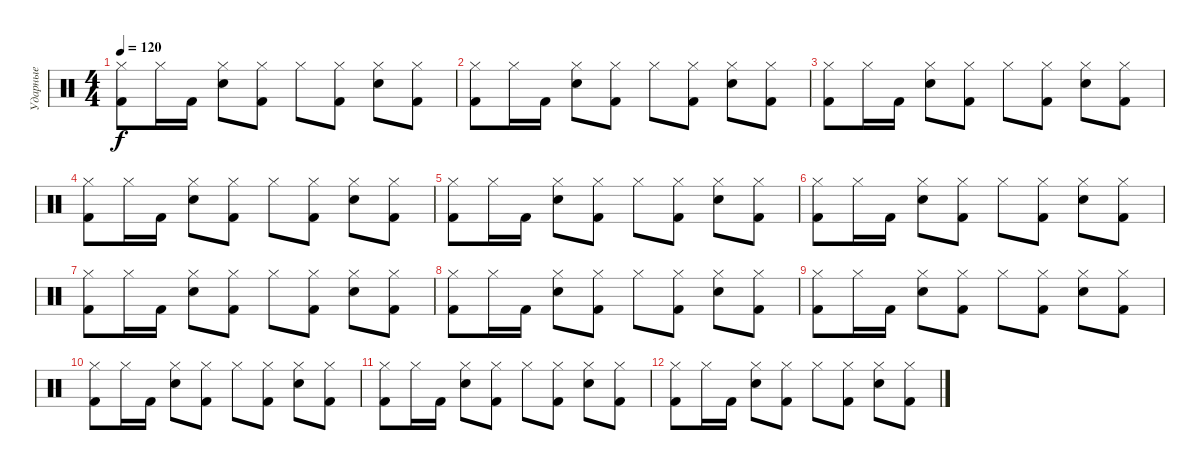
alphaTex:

\track ("Ударные" "Ударные") {instrument percussion}
\staff {score}
\articulation defaults
\ts (4 4)
\tempo 120
\clef neutral
\ks c
("Hi-Hat (closed)" "Kick (hit) 2").8{dy f} "Hi-Hat (closed)".16 "Kick (hit) 2".16 ("Hi-Hat (closed)" "Electric Snare (hit)").8 ("Hi-Hat (closed)" "Kick (hit) 2").8 "Hi-Hat (closed)".8 ("Hi-Hat (closed)" "Kick (hit) 2").8 ("Hi-Hat (closed)" "Electric Snare (hit)").8 ("Hi-Hat (closed)" "Kick (hit) 2").8 |
("Hi-Hat (closed)" "Kick (hit) 2").8 "Hi-Hat (closed)".16 "Kick (hit) 2".16 ("Hi-Hat (closed)" "Electric Snare (hit)").8 ("Hi-Hat (closed)" "Kick (hit) 2").8 "Hi-Hat (closed)".8 ("Hi-Hat (closed)" "Kick (hit) 2").8 ("Hi-Hat (closed)" "Electric Snare (hit)").8 ("Hi-Hat (closed)" "Kick (hit) 2").8 |
("Hi-Hat (closed)" "Kick (hit) 2").8 "Hi-Hat (closed)".16 "Kick (hit) 2".16 ("Hi-Hat (closed)" "Electric Snare (hit)").8 ("Hi-Hat (closed)" "Kick (hit) 2").8 "Hi-Hat (closed)".8 ("Hi-Hat (closed)" "Kick (hit) 2").8 ("Hi-Hat (closed)" "Electric Snare (hit)").8 ("Hi-Hat (closed)" "Kick (hit) 2").8 |
("Hi-Hat (closed)" "Kick (hit) 2").8 "Hi-Hat (closed)".16 "Kick (hit) 2".16 ("Hi-Hat (closed)" "Electric Snare (hit)").8 ("Hi-Hat (closed)" "Kick (hit) 2").8 "Hi-Hat (closed)".8 ("Hi-Hat (closed)" "Kick (hit) 2").8 ("Hi-Hat (closed)" "Electric Snare (hit)").8 ("Hi-Hat (closed)" "Kick (hit) 2").8 |
("Hi-Hat (closed)" "Kick (hit) 2").8 "Hi-Hat (closed)".16 "Kick (hit) 2".16 ("Hi-Hat (closed)" "Electric Snare (hit)").8 ("Hi-Hat (closed)" "Kick (hit) 2").8 "Hi-Hat (closed)".8 ("Hi-Hat (closed)" "Kick (hit) 2").8 ("Hi-Hat (closed)" "Electric Snare (hit)").8 ("Hi-Hat (closed)" "Kick (hit) 2").8 |
("Hi-Hat (closed)" "Kick (hit) 2").8 "Hi-Hat (closed)".16 "Kick (hit) 2".16 ("Hi-Hat (closed)" "Electric Snare (hit)").8 ("Hi-Hat (closed)" "Kick (hit) 2").8 "Hi-Hat (closed)".8 ("Hi-Hat (closed)" "Kick (hit) 2").8 ("Hi-Hat (closed)" "Electric Snare (hit)").8 ("Hi-Hat (closed)" "Kick (hit) 2").8 |
("Hi-Hat (closed)" "Kick (hit) 2").8 "Hi-Hat (closed)".16 "Kick (hit) 2".16 ("Hi-Hat (closed)" "Electric Snare (hit)").8 ("Hi-Hat (closed)" "Kick (hit) 2").8 "Hi-Hat (closed)".8 ("Hi-Hat (closed)" "Kick (hit) 2").8 ("Hi-Hat (closed)" "Electric Snare (hit)").8 ("Hi-Hat (closed)" "Kick (hit) 2").8 |
("Hi-Hat (closed)" "Kick (hit) 2").8 "Hi-Hat (closed)".16 "Kick (hit) 2".16 ("Hi-Hat (closed)" "Electric Snare (hit)").8 ("Hi-Hat (closed)" "Kick (hit) 2").8 "Hi-Hat (closed)".8 ("Hi-Hat (closed)" "Kick (hit) 2").8 ("Hi-Hat (closed)" "Electric Snare (hit)").8 ("Hi-Hat (closed)" "Kick (hit) 2").8 |
("Hi-Hat (closed)" "Kick (hit) 2").8 "Hi-Hat (closed)".16 "Kick (hit) 2".16 ("Hi-Hat (closed)" "Electric Snare (hit)").8 ("Hi-Hat (closed)" "Kick (hit) 2").8 "Hi-Hat (closed)".8 ("Hi-Hat (closed)" "Kick (hit) 2").8 ("Hi-Hat (closed)" "Electric Snare (hit)").8 ("Hi-Hat (closed)" "Kick (hit) 2").8 |
("Hi-Hat (closed)" "Kick (hit) 2").8 "Hi-Hat (closed)".16 "Kick (hit) 2".16 ("Hi-Hat (closed)" "Electric Snare (hit)").8 ("Hi-Hat (closed)" "Kick (hit) 2").8 "Hi-Hat (closed)".8 ("Hi-Hat (closed)" "Kick (hit) 2").8 ("Hi-Hat (closed)" "Electric Snare (hit)").8 ("Hi-Hat (closed)" "Kick (hit) 2").8 |
("Hi-Hat (closed)" "Kick (hit) 2").8 "Hi-Hat (closed)".16 "Kick (hit) 2".16 ("Hi-Hat (closed)" "Electric Snare (hit)").8 ("Hi-Hat (closed)" "Kick (hit) 2").8 "Hi-Hat (closed)".8 ("Hi-Hat (closed)" "Kick (hit) 2").8 ("Hi-Hat (closed)" "Electric Snare (hit)").8 ("Hi-Hat (closed)" "Kick (hit) 2").8 |
("Hi-Hat (closed)" "Kick (hit) 2").8 "Hi-Hat (closed)".16 "Kick (hit) 2".16 ("Hi-Hat (closed)" "Electric Snare (hit)").8 ("Hi-Hat (closed)" "Kick (hit) 2").8 "Hi-Hat (closed)".8 ("Hi-Hat (closed)" "Kick (hit) 2").8 ("Hi-Hat (closed)" "Electric Snare (hit)").8 ("Hi-Hat (closed)" "Kick (hit) 2").8
